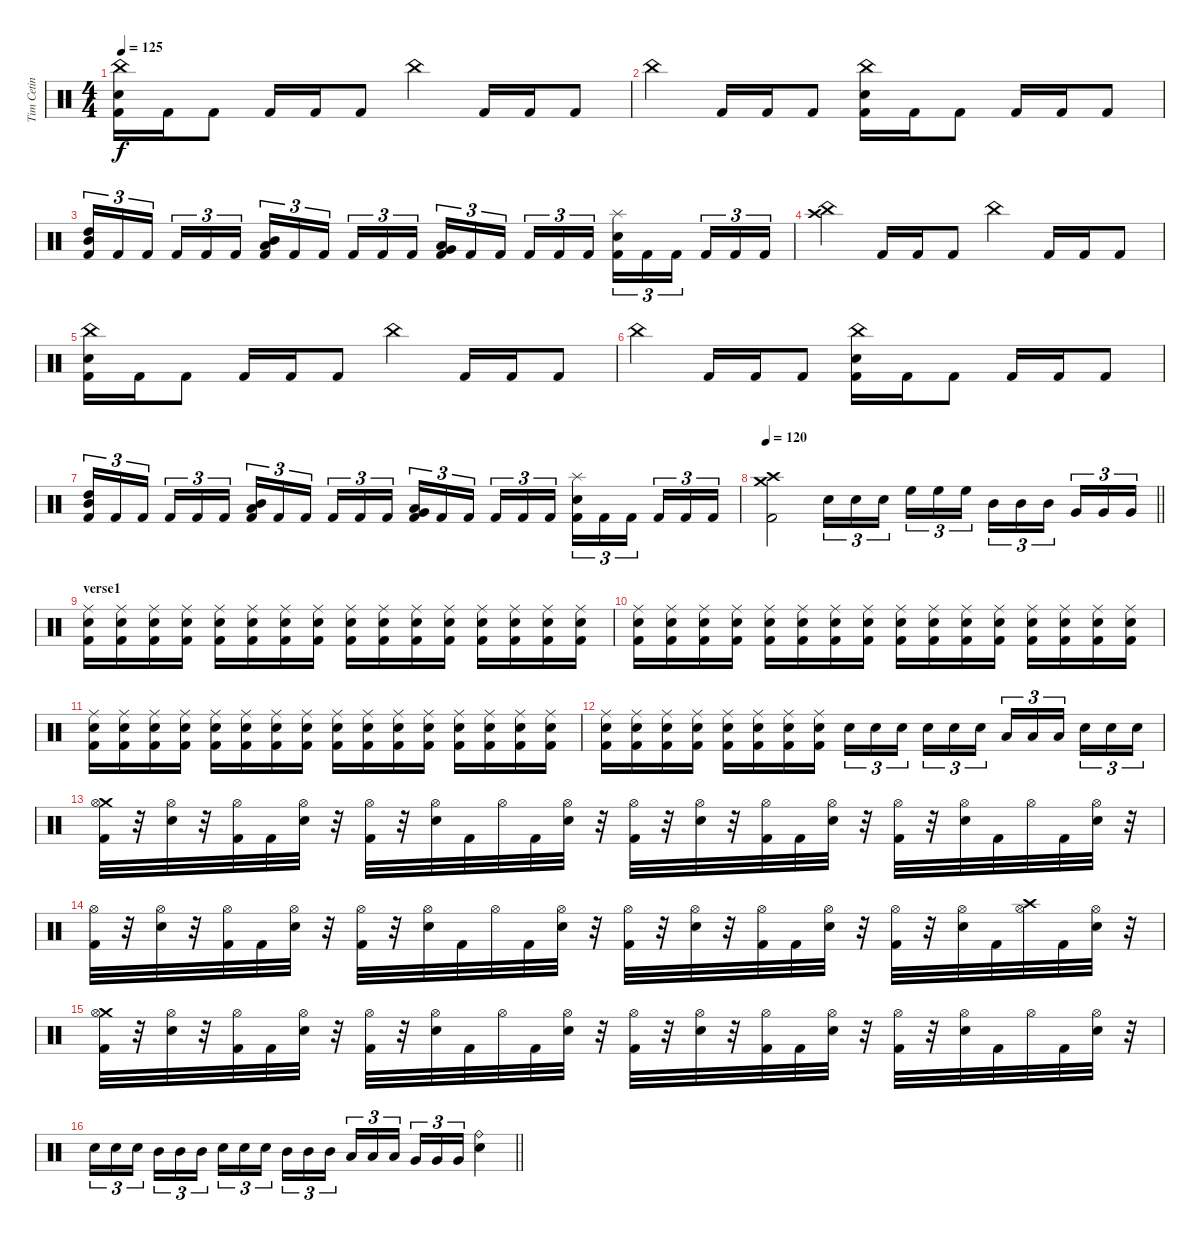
\track ("Tim Cetin" "Tim Cetin") {instrument percussion}
\staff {score}
\articulation defaults
\ts (4 4)
\tempo 125
\clef neutral
\ks c
("China (hit)" "Snare (hit) 2" "Kick (hit) 2").16{dy f} "Kick (hit) 2".16 "Kick (hit) 2".8 "Kick (hit) 2".16 "Kick (hit) 2".16 "Kick (hit) 2".8 "China (hit)".4 "Kick (hit) 2".16 "Kick (hit) 2".16 "Kick (hit) 2".8 |
"China (hit)".4 "Kick (hit) 2".16 "Kick (hit) 2".16 "Kick (hit) 2".8 ("China (hit)" "Snare (hit) 2" "Kick (hit) 2").16 "Kick (hit) 2".16 "Kick (hit) 2".8 "Kick (hit) 2".16 "Kick (hit) 2".16 "Kick (hit) 2".8 |
("Mid Tom (hit)" "High Tom (hit)" "Kick (hit) 2").16{tu (3 2)} "Kick (hit) 2".16{tu (3 2)} "Kick (hit) 2".16{tu (3 2) beam splitsecondary} "Kick (hit) 2".16{tu (3 2)} "Kick (hit) 2".16{tu (3 2)} "Kick (hit) 2".16{tu (3 2)} ("Mid Tom (hit)" "Low Tom (hit)" "Kick (hit) 2").16{tu (3 2)} "Kick (hit) 2".16{tu (3 2)} "Kick (hit) 2".16{tu (3 2) beam splitsecondary} "Kick (hit) 2".16{tu (3 2)} "Kick (hit) 2".16{tu (3 2)} "Kick (hit) 2".16{tu (3 2)} ("Low Tom (hit)" "Very Low Tom (hit)" "Kick (hit) 2").16{tu (3 2)} "Kick (hit) 2".16{tu (3 2)} "Kick (hit) 2".16{tu (3 2) beam splitsecondary} "Kick (hit) 2".16{tu (3 2)} "Kick (hit) 2".16{tu (3 2)} "Kick (hit) 2".16{tu (3 2)} ("Splash (hit)" "Snare (hit) 2" "Kick (hit) 2").16{tu (3 2)} "Kick (hit) 2".16{tu (3 2)} "Kick (hit) 2".16{tu (3 2) beam splitsecondary} "Kick (hit) 2".16{tu (3 2)} "Kick (hit) 2".16{tu (3 2)} "Kick (hit) 2".16{tu (3 2)} |
("Crash high (hit)" "China (hit)").4 "Kick (hit) 2".16 "Kick (hit) 2".16 "Kick (hit) 2".8 "China (hit)".4 "Kick (hit) 2".16 "Kick (hit) 2".16 "Kick (hit) 2".8 |
("China (hit)" "Snare (hit) 2" "Kick (hit) 2").16 "Kick (hit) 2".16 "Kick (hit) 2".8 "Kick (hit) 2".16 "Kick (hit) 2".16 "Kick (hit) 2".8 "China (hit)".4 "Kick (hit) 2".16 "Kick (hit) 2".16 "Kick (hit) 2".8 |
"China (hit)".4 "Kick (hit) 2".16 "Kick (hit) 2".16 "Kick (hit) 2".8 ("China (hit)" "Snare (hit) 2" "Kick (hit) 2").16 "Kick (hit) 2".16 "Kick (hit) 2".8 "Kick (hit) 2".16 "Kick (hit) 2".16 "Kick (hit) 2".8 |
("Mid Tom (hit)" "High Tom (hit)" "Kick (hit) 2").16{tu (3 2)} "Kick (hit) 2".16{tu (3 2)} "Kick (hit) 2".16{tu (3 2) beam splitsecondary} "Kick (hit) 2".16{tu (3 2)} "Kick (hit) 2".16{tu (3 2)} "Kick (hit) 2".16{tu (3 2)} ("Mid Tom (hit)" "Low Tom (hit)" "Kick (hit) 2").16{tu (3 2)} "Kick (hit) 2".16{tu (3 2)} "Kick (hit) 2".16{tu (3 2) beam splitsecondary} "Kick (hit) 2".16{tu (3 2)} "Kick (hit) 2".16{tu (3 2)} "Kick (hit) 2".16{tu (3 2)} ("Low Tom (hit)" "Very Low Tom (hit)" "Kick (hit) 2").16{tu (3 2)} "Kick (hit) 2".16{tu (3 2)} "Kick (hit) 2".16{tu (3 2) beam splitsecondary} "Kick (hit) 2".16{tu (3 2)} "Kick (hit) 2".16{tu (3 2)} "Kick (hit) 2".16{tu (3 2)} ("Splash (hit)" "Snare (hit) 2" "Kick (hit) 2").16{tu (3 2)} "Kick (hit) 2".16{tu (3 2)} "Kick (hit) 2".16{tu (3 2) beam splitsecondary} "Kick (hit) 2".16{tu (3 2)} "Kick (hit) 2".16{tu (3 2)} "Kick (hit) 2".16{tu (3 2)} |
\tempo 120
\barLineRight lightlight
("Crash medium (hit)" "Crash high (hit)" "Kick (hit) 2").2 "Snare (hit) 2".16{tu (3 2)} "Snare (hit) 2".16{tu (3 2)} "Snare (hit) 2".16{tu (3 2) beam splitsecondary} "High Floor Tom (hit)".16{tu (3 2)} "High Floor Tom (hit)".16{tu (3 2)} "High Floor Tom (hit)".16{tu (3 2)} "Mid Tom (hit)".16{tu (3 2)} "Mid Tom (hit)".16{tu (3 2)} "Mid Tom (hit)".16{tu (3 2) beam splitsecondary} "Very Low Tom (hit)".16{tu (3 2)} "Very Low Tom (hit)".16{tu (3 2)} "Very Low Tom (hit)".16{tu (3 2)} |
\section ("" "verse1")
("Ride (middle)" "Snare (hit) 2" "Kick (hit) 2").16 ("Ride (middle)" "Snare (hit) 2" "Kick (hit) 2").16 ("Ride (middle)" "Snare (hit) 2" "Kick (hit) 2").16 ("Ride (middle)" "Snare (hit) 2" "Kick (hit) 2").16 ("Ride (middle)" "Snare (hit) 2" "Kick (hit) 2").16 ("Ride (middle)" "Snare (hit) 2" "Kick (hit) 2").16 ("Ride (middle)" "Snare (hit) 2" "Kick (hit) 2").16 ("Ride (middle)" "Snare (hit) 2" "Kick (hit) 2").16 ("Ride (middle)" "Snare (hit) 2" "Kick (hit) 2").16 ("Ride (middle)" "Snare (hit) 2" "Kick (hit) 2").16 ("Ride (middle)" "Snare (hit) 2" "Kick (hit) 2").16 ("Ride (middle)" "Snare (hit) 2" "Kick (hit) 2").16 ("Ride (middle)" "Snare (hit) 2" "Kick (hit) 2").16 ("Ride (middle)" "Snare (hit) 2" "Kick (hit) 2").16 ("Ride (middle)" "Snare (hit) 2" "Kick (hit) 2").16 ("Ride (middle)" "Snare (hit) 2" "Kick (hit) 2").16 |
("Ride (middle)" "Snare (hit) 2" "Kick (hit) 2").16 ("Ride (middle)" "Snare (hit) 2" "Kick (hit) 2").16 ("Ride (middle)" "Snare (hit) 2" "Kick (hit) 2").16 ("Ride (middle)" "Snare (hit) 2" "Kick (hit) 2").16 ("Ride (middle)" "Snare (hit) 2" "Kick (hit) 2").16 ("Ride (middle)" "Snare (hit) 2" "Kick (hit) 2").16 ("Ride (middle)" "Snare (hit) 2" "Kick (hit) 2").16 ("Ride (middle)" "Snare (hit) 2" "Kick (hit) 2").16 ("Ride (middle)" "Snare (hit) 2" "Kick (hit) 2").16 ("Ride (middle)" "Snare (hit) 2" "Kick (hit) 2").16 ("Ride (middle)" "Snare (hit) 2" "Kick (hit) 2").16 ("Ride (middle)" "Snare (hit) 2" "Kick (hit) 2").16 ("Ride (middle)" "Snare (hit) 2" "Kick (hit) 2").16 ("Ride (middle)" "Snare (hit) 2" "Kick (hit) 2").16 ("Ride (middle)" "Snare (hit) 2" "Kick (hit) 2").16 ("Ride (middle)" "Snare (hit) 2" "Kick (hit) 2").16 |
("Ride (middle)" "Snare (hit) 2" "Kick (hit) 2").16 ("Ride (middle)" "Snare (hit) 2" "Kick (hit) 2").16 ("Ride (middle)" "Snare (hit) 2" "Kick (hit) 2").16 ("Ride (middle)" "Snare (hit) 2" "Kick (hit) 2").16 ("Ride (middle)" "Snare (hit) 2" "Kick (hit) 2").16 ("Ride (middle)" "Snare (hit) 2" "Kick (hit) 2").16 ("Ride (middle)" "Snare (hit) 2" "Kick (hit) 2").16 ("Ride (middle)" "Snare (hit) 2" "Kick (hit) 2").16 ("Ride (middle)" "Snare (hit) 2" "Kick (hit) 2").16 ("Ride (middle)" "Snare (hit) 2" "Kick (hit) 2").16 ("Ride (middle)" "Snare (hit) 2" "Kick (hit) 2").16 ("Ride (middle)" "Snare (hit) 2" "Kick (hit) 2").16 ("Ride (middle)" "Snare (hit) 2" "Kick (hit) 2").16 ("Ride (middle)" "Snare (hit) 2" "Kick (hit) 2").16 ("Ride (middle)" "Snare (hit) 2" "Kick (hit) 2").16 ("Ride (middle)" "Snare (hit) 2" "Kick (hit) 2").16 |
("Ride (middle)" "Snare (hit) 2" "Kick (hit) 2").16 ("Ride (middle)" "Snare (hit) 2" "Kick (hit) 2").16 ("Ride (middle)" "Snare (hit) 2" "Kick (hit) 2").16 ("Ride (middle)" "Snare (hit) 2" "Kick (hit) 2").16 ("Ride (middle)" "Snare (hit) 2" "Kick (hit) 2").16 ("Ride (middle)" "Snare (hit) 2" "Kick (hit) 2").16 ("Ride (middle)" "Snare (hit) 2" "Kick (hit) 2").16 ("Ride (middle)" "Snare (hit) 2" "Kick (hit) 2").16 "Snare (hit) 2".16{tu (3 2)} "Snare (hit) 2".16{tu (3 2)} "Snare (hit) 2".16{tu (3 2) beam splitsecondary} "Snare (hit) 2".16{tu (3 2)} "Snare (hit) 2".16{tu (3 2)} "Snare (hit) 2".16{tu (3 2)} "Low Tom (hit)".16{tu (3 2)} "Low Tom (hit)".16{tu (3 2)} "Low Tom (hit)".16{tu (3 2) beam splitsecondary} "Snare (hit) 2".16{tu (3 2)} "Snare (hit) 2".16{tu (3 2)} "Snare (hit) 2".16{tu (3 2)} |
("Crash medium (hit)" "Hi-Hat (open)" "Kick (hit) 2").32 r.32 ("Hi-Hat (open)" "Snare (hit) 2").32 r.32 ("Hi-Hat (open)" "Kick (hit) 2").32 "Kick (hit) 2".32 ("Hi-Hat (open)" "Snare (hit) 2").32 r.32 ("Hi-Hat (open)" "Kick (hit) 2").32 r.32 ("Hi-Hat (open)" "Snare (hit) 2").32 "Kick (hit) 2".32 "Hi-Hat (open)".32 "Kick (hit) 2".32 ("Hi-Hat (open)" "Snare (hit) 2").32 r.32 ("Hi-Hat (open)" "Kick (hit) 2").32 r.32 ("Hi-Hat (open)" "Snare (hit) 2").32 r.32 ("Hi-Hat (open)" "Kick (hit) 2").32 "Kick (hit) 2".32 ("Hi-Hat (open)" "Snare (hit) 2").32 r.32 ("Hi-Hat (open)" "Kick (hit) 2").32 r.32 ("Hi-Hat (open)" "Snare (hit) 2").32 "Kick (hit) 2".32 "Hi-Hat (open)".32 "Kick (hit) 2".32 ("Hi-Hat (open)" "Snare (hit) 2").32 r.32 |
("Hi-Hat (open)" "Kick (hit) 2").32 r.32 ("Hi-Hat (open)" "Snare (hit) 2").32 r.32 ("Hi-Hat (open)" "Kick (hit) 2").32 "Kick (hit) 2".32 ("Hi-Hat (open)" "Snare (hit) 2").32 r.32 ("Hi-Hat (open)" "Kick (hit) 2").32 r.32 ("Hi-Hat (open)" "Snare (hit) 2").32 "Kick (hit) 2".32 "Hi-Hat (open)".32 "Kick (hit) 2".32 ("Hi-Hat (open)" "Snare (hit) 2").32 r.32 ("Hi-Hat (open)" "Kick (hit) 2").32 r.32 ("Hi-Hat (open)" "Snare (hit) 2").32 r.32 ("Hi-Hat (open)" "Kick (hit) 2").32 "Kick (hit) 2".32 ("Hi-Hat (open)" "Snare (hit) 2").32 r.32 ("Hi-Hat (open)" "Kick (hit) 2").32 r.32 ("Hi-Hat (open)" "Snare (hit) 2").32 "Kick (hit) 2".32 ("Crash high (hit)" "Hi-Hat (open)").32 "Kick (hit) 2".32 ("Hi-Hat (open)" "Snare (hit) 2").32 r.32 |
("Crash medium (hit)" "Hi-Hat (open)" "Kick (hit) 2").32 r.32 ("Hi-Hat (open)" "Snare (hit) 2").32 r.32 ("Hi-Hat (open)" "Kick (hit) 2").32 "Kick (hit) 2".32 ("Hi-Hat (open)" "Snare (hit) 2").32 r.32 ("Hi-Hat (open)" "Kick (hit) 2").32 r.32 ("Hi-Hat (open)" "Snare (hit) 2").32 "Kick (hit) 2".32 "Hi-Hat (open)".32 "Kick (hit) 2".32 ("Hi-Hat (open)" "Snare (hit) 2").32 r.32 ("Hi-Hat (open)" "Kick (hit) 2").32 r.32 ("Hi-Hat (open)" "Snare (hit) 2").32 r.32 ("Hi-Hat (open)" "Kick (hit) 2").32 "Kick (hit) 2".32 ("Hi-Hat (open)" "Snare (hit) 2").32 r.32 ("Hi-Hat (open)" "Kick (hit) 2").32 r.32 ("Hi-Hat (open)" "Snare (hit) 2").32 "Kick (hit) 2".32 "Hi-Hat (open)".32 "Kick (hit) 2".32 ("Hi-Hat (open)" "Snare (hit) 2").32 r.32 |
\barLineRight lightlight "Snare (hit) 2".16{tu (3 2)} "Snare (hit) 2".16{tu (3 2)} "Snare (hit) 2".16{tu (3 2) beam splitsecondary} "Mid Tom (hit)".16{tu (3 2)} "Mid Tom (hit)".16{tu (3 2)} "Mid Tom (hit)".16{tu (3 2)} "Snare (hit) 2".16{tu (3 2)} "Snare (hit) 2".16{tu (3 2)} "Snare (hit) 2".16{tu (3 2) beam splitsecondary} "Mid Tom (hit)".16{tu (3 2)} "Mid Tom (hit)".16{tu (3 2)} "Mid Tom (hit)".16{tu (3 2)} "Low Tom (hit)".16{tu (3 2)} "Low Tom (hit)".16{tu (3 2)} "Low Tom (hit)".16{tu (3 2) beam splitsecondary} "Very Low Tom (hit)".16{tu (3 2)} "Very Low Tom (hit)".16{tu (3 2)} "Very Low Tom (hit)".16{tu (3 2)}
("Ride (bell)" "Snare (hit) 2").4
